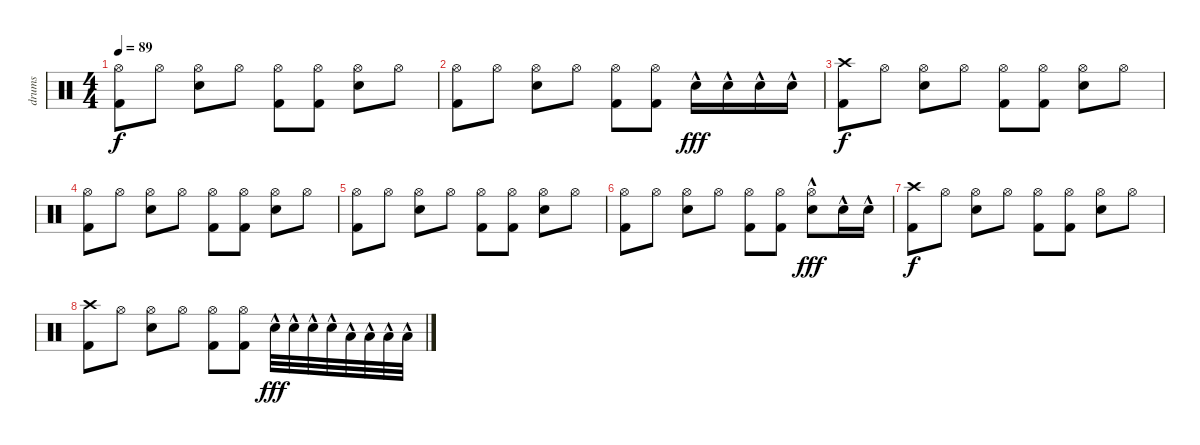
\track ("drums" "drums") {instrument percussion}
\staff {score}
\articulation defaults
\ts (4 4)
\tempo 89
\clef neutral
\ks c
("Kick (hit) 2" "Hi-Hat (open)").8{dy f} "Hi-Hat (open)".8 ("Electric Snare (hit)" "Hi-Hat (open)").8 "Hi-Hat (open)".8 ("Kick (hit) 2" "Hi-Hat (open)").8 ("Kick (hit) 2" "Hi-Hat (open)").8 ("Electric Snare (hit)" "Hi-Hat (open)").8 "Hi-Hat (open)".8 |
("Kick (hit) 2" "Hi-Hat (open)").8 "Hi-Hat (open)".8 ("Electric Snare (hit)" "Hi-Hat (open)").8 "Hi-Hat (open)".8 ("Kick (hit) 2" "Hi-Hat (open)").8 ("Kick (hit) 2" "Hi-Hat (open)").8 "Electric Snare (hit)"{hac}.16{dy fff} "Electric Snare (hit)"{hac}.16 "Electric Snare (hit)"{hac}.16 "Electric Snare (hit)"{hac}.16 |
("Crash high (hit)" "Kick (hit) 2").8{dy f} "Hi-Hat (open)".8 ("Electric Snare (hit)" "Hi-Hat (open)").8 "Hi-Hat (open)".8 ("Kick (hit) 2" "Hi-Hat (open)").8 ("Kick (hit) 2" "Hi-Hat (open)").8 ("Electric Snare (hit)" "Hi-Hat (open)").8 "Hi-Hat (open)".8 |
("Kick (hit) 2" "Hi-Hat (open)").8 "Hi-Hat (open)".8 ("Electric Snare (hit)" "Hi-Hat (open)").8 "Hi-Hat (open)".8 ("Kick (hit) 2" "Hi-Hat (open)").8 ("Kick (hit) 2" "Hi-Hat (open)").8 ("Electric Snare (hit)" "Hi-Hat (open)").8 "Hi-Hat (open)".8 |
("Kick (hit) 2" "Hi-Hat (open)").8 "Hi-Hat (open)".8 ("Electric Snare (hit)" "Hi-Hat (open)").8 "Hi-Hat (open)".8 ("Kick (hit) 2" "Hi-Hat (open)").8 ("Kick (hit) 2" "Hi-Hat (open)").8 ("Electric Snare (hit)" "Hi-Hat (open)").8 "Hi-Hat (open)".8 |
("Kick (hit) 2" "Hi-Hat (open)").8 "Hi-Hat (open)".8 ("Electric Snare (hit)" "Hi-Hat (open)").8 "Hi-Hat (open)".8 ("Kick (hit) 2" "Hi-Hat (open)").8 ("Kick (hit) 2" "Hi-Hat (open)").8 ("Electric Snare (hit)"{hac} "Hi-Hat (open)").8{dy fff} "Electric Snare (hit)"{hac}.16 "Electric Snare (hit)"{hac}.16 |
("Crash high (hit)" "Kick (hit) 2").8{dy f} "Hi-Hat (open)".8 ("Electric Snare (hit)" "Hi-Hat (open)").8 "Hi-Hat (open)".8 ("Kick (hit) 2" "Hi-Hat (open)").8 ("Kick (hit) 2" "Hi-Hat (open)").8 ("Electric Snare (hit)" "Hi-Hat (open)").8 "Hi-Hat (open)".8 |
("Crash high (hit)" "Kick (hit) 2").8 "Hi-Hat (open)".8 ("Electric Snare (hit)" "Hi-Hat (open)").8 "Hi-Hat (open)".8 ("Kick (hit) 2" "Hi-Hat (open)").8 ("Kick (hit) 2" "Hi-Hat (open)").8 "Electric Snare (hit)"{hac}.32{dy fff} "Electric Snare (hit)"{hac}.32 "Electric Snare (hit)"{hac}.32 "Electric Snare (hit)"{hac}.32 "Low Floor Tom (hit)"{hac}.32 "Low Floor Tom (hit)"{hac}.32 "Low Floor Tom (hit)"{hac}.32 "Low Floor Tom (hit)"{hac}.32
